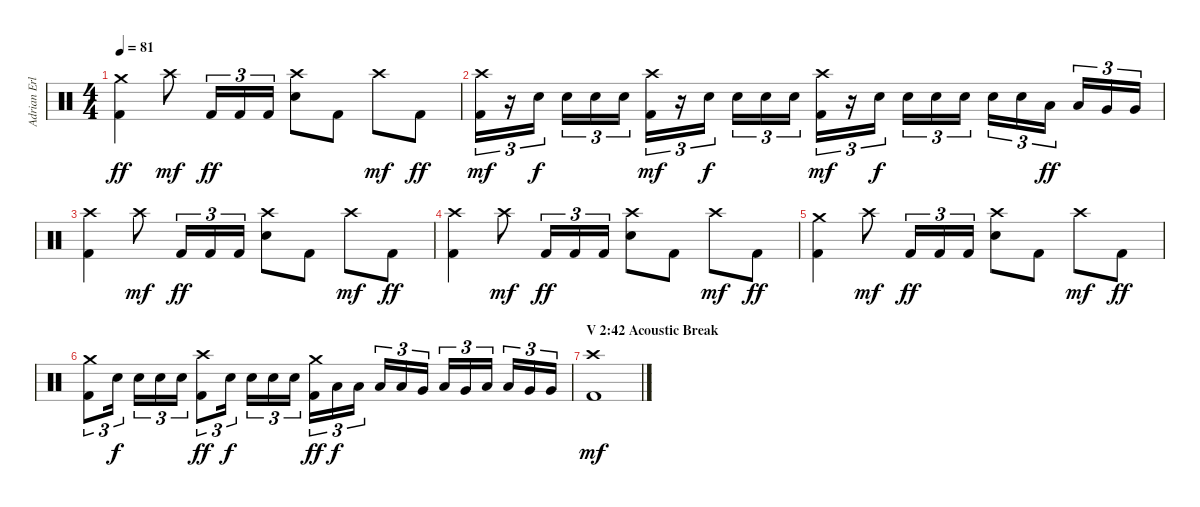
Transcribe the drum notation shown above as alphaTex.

\track ("Adrian Erlandsson (drums)" "Adrian Erl") {instrument percussion}
\staff {score}
\articulation defaults
\ts (4 4)
\tempo 81
\clef neutral
\ks c
("Crash medium (hit)" "Kick (hit) 2").4{dy ff} "Crash high (hit)".8{dy mf} "Kick (hit) 2".16{tu (3 2) dy ff} "Kick (hit) 2".16{tu (3 2)} "Kick (hit) 2".16{tu (3 2)} ("Crash high (hit)" "Electric Snare (hit)").8 "Kick (hit) 2".8 "Crash high (hit)".8{dy mf} "Kick (hit) 2".8{dy ff} |
("Crash high (hit)" "Kick (hit) 2").16{tu (3 2) dy mf} r.16{tu (3 2)} "Electric Snare (hit)".16{tu (3 2) dy f beam splitsecondary} "Electric Snare (hit)".16{tu (3 2)} "Electric Snare (hit)".16{tu (3 2)} "Electric Snare (hit)".16{tu (3 2)} ("Crash high (hit)" "Kick (hit) 2").16{tu (3 2) dy mf} r.16{tu (3 2)} "Electric Snare (hit)".16{tu (3 2) dy f beam splitsecondary} "Electric Snare (hit)".16{tu (3 2)} "Electric Snare (hit)".16{tu (3 2)} "Electric Snare (hit)".16{tu (3 2)} ("Crash high (hit)" "Kick (hit) 2").16{tu (3 2) dy mf} r.16{tu (3 2)} "Electric Snare (hit)".16{tu (3 2) dy f beam splitsecondary} "Electric Snare (hit)".16{tu (3 2)} "Electric Snare (hit)".16{tu (3 2)} "Electric Snare (hit)".16{tu (3 2)} "Electric Snare (hit)".16{tu (3 2)} "Electric Snare (hit)".16{tu (3 2)} "Low Tom (hit)".16{tu (3 2) dy ff beam splitsecondary} "Low Tom (hit)".16{tu (3 2)} "Very Low Tom (hit)".16{tu (3 2)} "Very Low Tom (hit)".16{tu (3 2)} |
("Crash high (hit)" "Kick (hit) 2").4 "Crash high (hit)".8{dy mf} "Kick (hit) 2".16{tu (3 2) dy ff} "Kick (hit) 2".16{tu (3 2)} "Kick (hit) 2".16{tu (3 2)} ("Crash high (hit)" "Electric Snare (hit)").8 "Kick (hit) 2".8 "Crash high (hit)".8{dy mf} "Kick (hit) 2".8{dy ff} |
("Crash high (hit)" "Kick (hit) 2").4 "Crash high (hit)".8{dy mf} "Kick (hit) 2".16{tu (3 2) dy ff} "Kick (hit) 2".16{tu (3 2)} "Kick (hit) 2".16{tu (3 2)} ("Crash high (hit)" "Electric Snare (hit)").8 "Kick (hit) 2".8 "Crash high (hit)".8{dy mf} "Kick (hit) 2".8{dy ff} |
("Crash medium (hit)" "Kick (hit) 2").4 "Crash high (hit)".8{dy mf} "Kick (hit) 2".16{tu (3 2) dy ff} "Kick (hit) 2".16{tu (3 2)} "Kick (hit) 2".16{tu (3 2)} ("Crash high (hit)" "Electric Snare (hit)").8 "Kick (hit) 2".8 "Crash high (hit)".8{dy mf} "Kick (hit) 2".8{dy ff} |
("Crash medium (hit)" "Kick (hit) 2").8{tu (3 2)} "Electric Snare (hit)".16{tu (3 2) dy f beam splitsecondary} "Electric Snare (hit)".16{tu (3 2)} "Electric Snare (hit)".16{tu (3 2)} "Electric Snare (hit)".16{tu (3 2)} ("Crash high (hit)" "Kick (hit) 2").8{tu (3 2) dy ff} "Electric Snare (hit)".16{tu (3 2) dy f beam splitsecondary} "Electric Snare (hit)".16{tu (3 2)} "Electric Snare (hit)".16{tu (3 2)} "Electric Snare (hit)".16{tu (3 2)} ("Crash medium (hit)" "Kick (hit) 2").16{tu (3 2) dy ff} "Low Tom (hit)".16{tu (3 2) dy f} "Low Tom (hit)".16{tu (3 2) beam splitsecondary} "Low Tom (hit)".16{tu (3 2)} "Low Tom (hit)".16{tu (3 2)} "Very Low Tom (hit)".16{tu (3 2)} "Low Tom (hit)".16{tu (3 2)} "Very Low Tom (hit)".16{tu (3 2)} "Low Tom (hit)".16{tu (3 2) beam splitsecondary} "Low Tom (hit)".16{tu (3 2)} "Very Low Tom (hit)".16{tu (3 2)} "Very Low Tom (hit)".16{tu (3 2)} |
\section ("" "V 2:42 Acoustic Break")
("Crash high (hit)" "Kick (hit) 2").1{dy mf}
